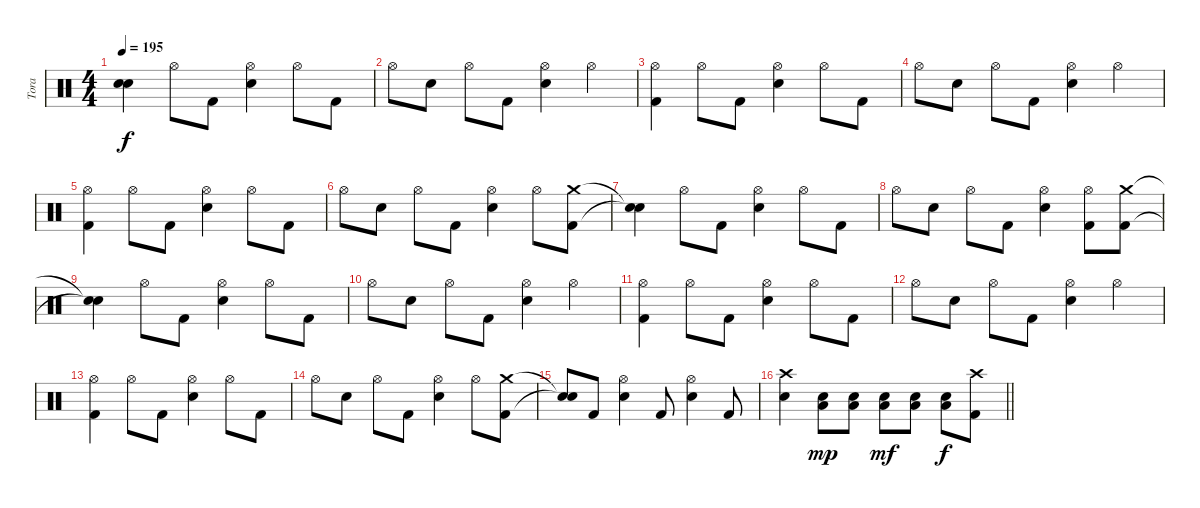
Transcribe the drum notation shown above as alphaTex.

\track ("Tora" "Tora") {instrument percussion}
\staff {score}
\articulation defaults
\ts (4 4)
\tempo 195
\clef neutral
\ks c
("Snare (hit)"{t} "Snare (hit)"{t}).4{dy f} "Hi-Hat (open)".8 "Kick (hit) 2".8 ("Hi-Hat (open)" "Electric Snare (hit)").4 "Hi-Hat (open)".8 "Kick (hit) 2".8 |
"Hi-Hat (open)".8 "Electric Snare (hit)".8 "Hi-Hat (open)".8 "Kick (hit) 2".8 ("Hi-Hat (open)" "Electric Snare (hit)").4 "Hi-Hat (open)".4 |
("Hi-Hat (open)" "Kick (hit) 2").4 "Hi-Hat (open)".8 "Kick (hit) 2".8 ("Hi-Hat (open)" "Electric Snare (hit)").4 "Hi-Hat (open)".8 "Kick (hit) 2".8 |
"Hi-Hat (open)".8 "Electric Snare (hit)".8 "Hi-Hat (open)".8 "Kick (hit) 2".8 ("Hi-Hat (open)" "Electric Snare (hit)").4 "Hi-Hat (open)".4 |
("Hi-Hat (open)" "Kick (hit) 2").4 "Hi-Hat (open)".8 "Kick (hit) 2".8 ("Hi-Hat (open)" "Electric Snare (hit)").4 "Hi-Hat (open)".8 "Kick (hit) 2".8 |
"Hi-Hat (open)".8 "Electric Snare (hit)".8 "Hi-Hat (open)".8 "Kick (hit) 2".8 ("Hi-Hat (open)" "Electric Snare (hit)").4 "Hi-Hat (open)".8 ("Crash medium (hit)" "Kick (hit) 2").8 |
("Snare (hit)"{t} "Snare (hit)"{t}).4 "Hi-Hat (open)".8 "Kick (hit) 2".8 ("Hi-Hat (open)" "Electric Snare (hit)").4 "Hi-Hat (open)".8 "Kick (hit) 2".8 |
"Hi-Hat (open)".8 "Electric Snare (hit)".8 "Hi-Hat (open)".8 "Kick (hit) 2".8 ("Hi-Hat (open)" "Electric Snare (hit)").4 ("Hi-Hat (open)" "Kick (hit) 2").8 ("Crash medium (hit)" "Kick (hit) 2").8 |
("Snare (hit)"{t} "Snare (hit)"{t}).4 "Hi-Hat (open)".8 "Kick (hit) 2".8 ("Hi-Hat (open)" "Electric Snare (hit)").4 "Hi-Hat (open)".8 "Kick (hit) 2".8 |
"Hi-Hat (open)".8 "Electric Snare (hit)".8 "Hi-Hat (open)".8 "Kick (hit) 2".8 ("Hi-Hat (open)" "Electric Snare (hit)").4 "Hi-Hat (open)".4 |
("Hi-Hat (open)" "Kick (hit) 2").4 "Hi-Hat (open)".8 "Kick (hit) 2".8 ("Hi-Hat (open)" "Electric Snare (hit)").4 "Hi-Hat (open)".8 "Kick (hit) 2".8 |
"Hi-Hat (open)".8 "Electric Snare (hit)".8 "Hi-Hat (open)".8 "Kick (hit) 2".8 ("Hi-Hat (open)" "Electric Snare (hit)").4 "Hi-Hat (open)".4 |
("Hi-Hat (open)" "Kick (hit) 2").4 "Hi-Hat (open)".8 "Kick (hit) 2".8 ("Hi-Hat (open)" "Electric Snare (hit)").4 "Hi-Hat (open)".8 "Kick (hit) 2".8 |
"Hi-Hat (open)".8 "Electric Snare (hit)".8 "Hi-Hat (open)".8 "Kick (hit) 2".8 ("Hi-Hat (open)" "Electric Snare (hit)").4 "Hi-Hat (open)".8 ("Crash medium (hit)" "Kick (hit) 2").8 |
("Snare (hit)"{t} "Snare (hit)"{t}).8 "Kick (hit) 2".8 ("Hi-Hat (open)" "Electric Snare (hit)").4 "Kick (hit) 2".8 ("Hi-Hat (open)" "Electric Snare (hit)").4 "Kick (hit) 2".8 |
\barLineRight lightlight
("Crash high (hit)" "Electric Snare (hit)").4 ("Electric Snare (hit)" "Low Floor Tom (hit)").8{dy mp} ("Electric Snare (hit)" "Low Floor Tom (hit)").8 ("Electric Snare (hit)" "Low Floor Tom (hit)").8{dy mf} ("Electric Snare (hit)" "Low Floor Tom (hit)").8 ("Electric Snare (hit)" "Low Floor Tom (hit)").8{dy f} ("Crash high (hit)" "Kick (hit) 2").8
